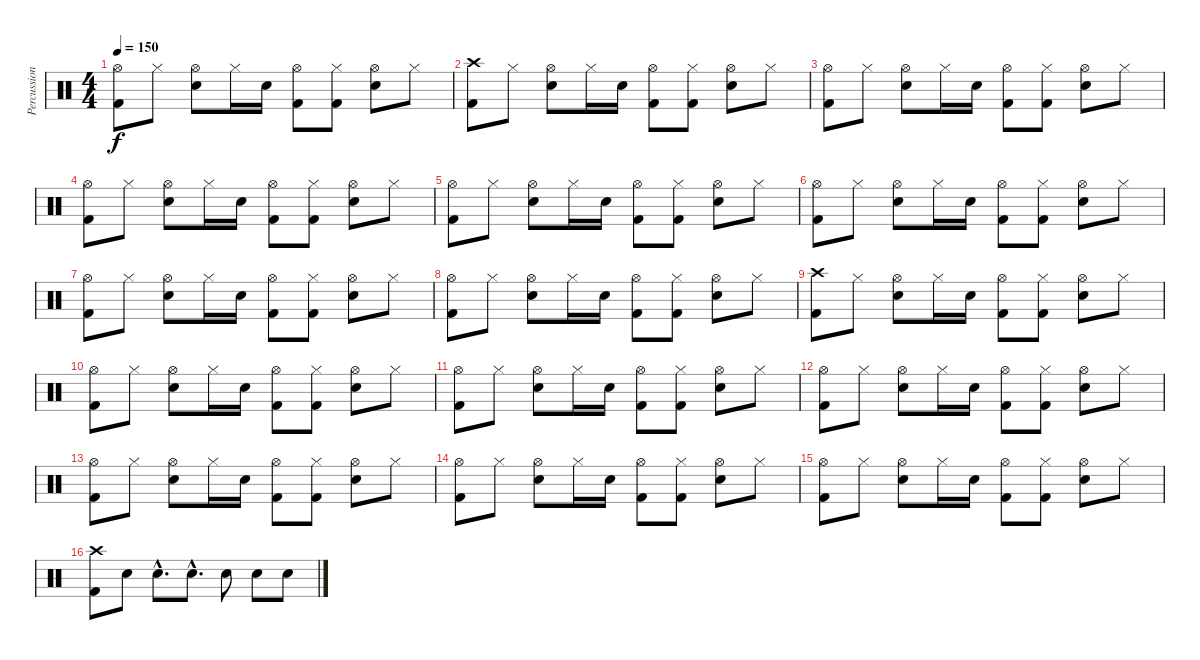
\track ("Percussion" "Percussion") {instrument percussion}
\staff {score}
\articulation defaults
\ts (4 4)
\tempo 150
\clef neutral
\ks c
("Hi-Hat (open)" "Kick (hit) 2").8{dy f} "Hi-Hat (closed)".8 ("Hi-Hat (open)" "Electric Snare (hit)").8 "Hi-Hat (closed)".16 "Electric Snare (hit)".16 ("Hi-Hat (open)" "Kick (hit) 2").8 ("Hi-Hat (closed)" "Kick (hit) 2").8 ("Hi-Hat (open)" "Electric Snare (hit)").8 "Hi-Hat (closed)".8 |
("Crash high (hit)" "Kick (hit) 2").8 "Hi-Hat (closed)".8 ("Hi-Hat (open)" "Electric Snare (hit)").8 "Hi-Hat (closed)".16 "Electric Snare (hit)".16 ("Hi-Hat (open)" "Kick (hit) 2").8 ("Hi-Hat (closed)" "Kick (hit) 2").8 ("Hi-Hat (open)" "Electric Snare (hit)").8 "Hi-Hat (closed)".8 |
("Hi-Hat (open)" "Kick (hit) 2").8 "Hi-Hat (closed)".8 ("Hi-Hat (open)" "Electric Snare (hit)").8 "Hi-Hat (closed)".16 "Electric Snare (hit)".16 ("Hi-Hat (open)" "Kick (hit) 2").8 ("Hi-Hat (closed)" "Kick (hit) 2").8 ("Hi-Hat (open)" "Electric Snare (hit)").8 "Hi-Hat (closed)".8 |
("Hi-Hat (open)" "Kick (hit) 2").8 "Hi-Hat (closed)".8 ("Hi-Hat (open)" "Electric Snare (hit)").8 "Hi-Hat (closed)".16 "Electric Snare (hit)".16 ("Hi-Hat (open)" "Kick (hit) 2").8 ("Hi-Hat (closed)" "Kick (hit) 2").8 ("Hi-Hat (open)" "Electric Snare (hit)").8 "Hi-Hat (closed)".8 |
("Hi-Hat (open)" "Kick (hit) 2").8 "Hi-Hat (closed)".8 ("Hi-Hat (open)" "Electric Snare (hit)").8 "Hi-Hat (closed)".16 "Electric Snare (hit)".16 ("Hi-Hat (open)" "Kick (hit) 2").8 ("Hi-Hat (closed)" "Kick (hit) 2").8 ("Hi-Hat (open)" "Electric Snare (hit)").8 "Hi-Hat (closed)".8 |
("Hi-Hat (open)" "Kick (hit) 2").8 "Hi-Hat (closed)".8 ("Hi-Hat (open)" "Electric Snare (hit)").8 "Hi-Hat (closed)".16 "Electric Snare (hit)".16 ("Hi-Hat (open)" "Kick (hit) 2").8 ("Hi-Hat (closed)" "Kick (hit) 2").8 ("Hi-Hat (open)" "Electric Snare (hit)").8 "Hi-Hat (closed)".8 |
("Hi-Hat (open)" "Kick (hit) 2").8 "Hi-Hat (closed)".8 ("Hi-Hat (open)" "Electric Snare (hit)").8 "Hi-Hat (closed)".16 "Electric Snare (hit)".16 ("Hi-Hat (open)" "Kick (hit) 2").8 ("Hi-Hat (closed)" "Kick (hit) 2").8 ("Hi-Hat (open)" "Electric Snare (hit)").8 "Hi-Hat (closed)".8 |
("Hi-Hat (open)" "Kick (hit) 2").8 "Hi-Hat (closed)".8 ("Hi-Hat (open)" "Electric Snare (hit)").8 "Hi-Hat (closed)".16 "Electric Snare (hit)".16 ("Hi-Hat (open)" "Kick (hit) 2").8 ("Hi-Hat (closed)" "Kick (hit) 2").8 ("Hi-Hat (open)" "Electric Snare (hit)").8 "Hi-Hat (closed)".8 |
("Crash high (hit)" "Kick (hit) 2").8 "Hi-Hat (closed)".8 ("Hi-Hat (open)" "Electric Snare (hit)").8 "Hi-Hat (closed)".16 "Electric Snare (hit)".16 ("Hi-Hat (open)" "Kick (hit) 2").8 ("Hi-Hat (closed)" "Kick (hit) 2").8 ("Hi-Hat (open)" "Electric Snare (hit)").8 "Hi-Hat (closed)".8 |
("Hi-Hat (open)" "Kick (hit) 2").8 "Hi-Hat (closed)".8 ("Hi-Hat (open)" "Electric Snare (hit)").8 "Hi-Hat (closed)".16 "Electric Snare (hit)".16 ("Hi-Hat (open)" "Kick (hit) 2").8 ("Hi-Hat (closed)" "Kick (hit) 2").8 ("Hi-Hat (open)" "Electric Snare (hit)").8 "Hi-Hat (closed)".8 |
("Hi-Hat (open)" "Kick (hit) 2").8 "Hi-Hat (closed)".8 ("Hi-Hat (open)" "Electric Snare (hit)").8 "Hi-Hat (closed)".16 "Electric Snare (hit)".16 ("Hi-Hat (open)" "Kick (hit) 2").8 ("Hi-Hat (closed)" "Kick (hit) 2").8 ("Hi-Hat (open)" "Electric Snare (hit)").8 "Hi-Hat (closed)".8 |
("Hi-Hat (open)" "Kick (hit) 2").8 "Hi-Hat (closed)".8 ("Hi-Hat (open)" "Electric Snare (hit)").8 "Hi-Hat (closed)".16 "Electric Snare (hit)".16 ("Hi-Hat (open)" "Kick (hit) 2").8 ("Hi-Hat (closed)" "Kick (hit) 2").8 ("Hi-Hat (open)" "Electric Snare (hit)").8 "Hi-Hat (closed)".8 |
("Hi-Hat (open)" "Kick (hit) 2").8 "Hi-Hat (closed)".8 ("Hi-Hat (open)" "Electric Snare (hit)").8 "Hi-Hat (closed)".16 "Electric Snare (hit)".16 ("Hi-Hat (open)" "Kick (hit) 2").8 ("Hi-Hat (closed)" "Kick (hit) 2").8 ("Hi-Hat (open)" "Electric Snare (hit)").8 "Hi-Hat (closed)".8 |
("Hi-Hat (open)" "Kick (hit) 2").8 "Hi-Hat (closed)".8 ("Hi-Hat (open)" "Electric Snare (hit)").8 "Hi-Hat (closed)".16 "Electric Snare (hit)".16 ("Hi-Hat (open)" "Kick (hit) 2").8 ("Hi-Hat (closed)" "Kick (hit) 2").8 ("Hi-Hat (open)" "Electric Snare (hit)").8 "Hi-Hat (closed)".8 |
("Hi-Hat (open)" "Kick (hit) 2").8 "Hi-Hat (closed)".8 ("Hi-Hat (open)" "Electric Snare (hit)").8 "Hi-Hat (closed)".16 "Electric Snare (hit)".16 ("Hi-Hat (open)" "Kick (hit) 2").8 ("Hi-Hat (closed)" "Kick (hit) 2").8 ("Hi-Hat (open)" "Electric Snare (hit)").8 "Hi-Hat (closed)".8 |
("Crash high (hit)" "Kick (hit) 2").8 "Electric Snare (hit)".8 "Electric Snare (hit)"{hac}.8{d} "Electric Snare (hit)"{hac}.8{d} "Electric Snare (hit)".8 "Electric Snare (hit)".8 "Electric Snare (hit)".8
